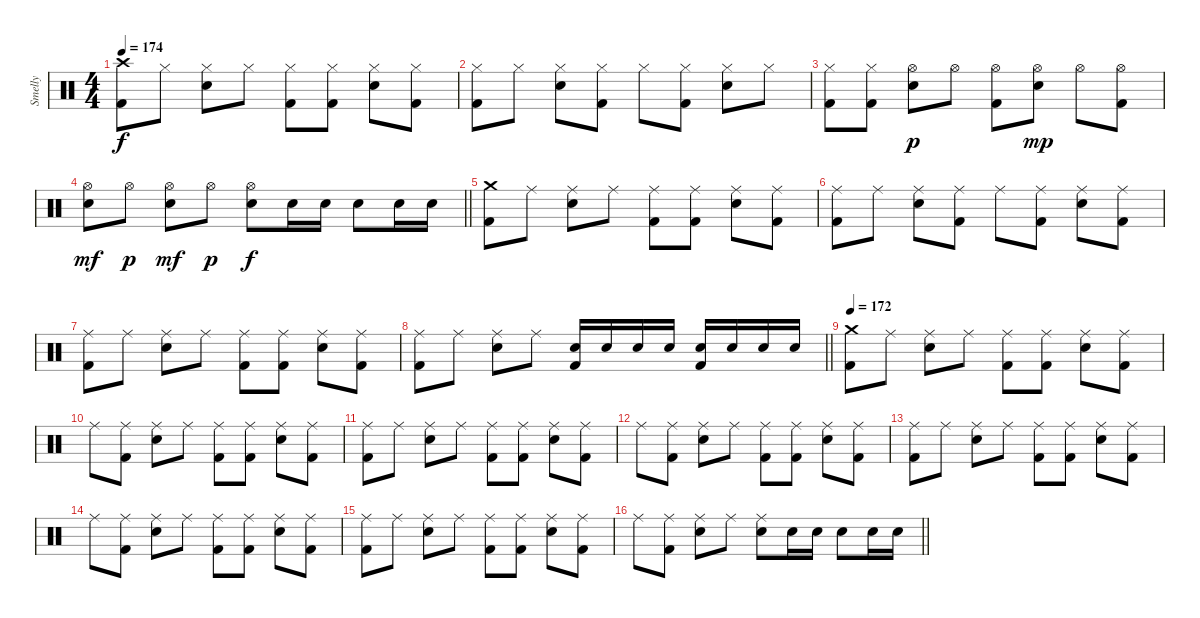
\track ("Smelly" "Smelly") {instrument percussion}
\staff {score}
\articulation defaults
\ts (4 4)
\tempo 174
\clef neutral
\ks c
("Crash high (hit)" "Kick (hit) 2").8{dy f} "Hi-Hat (closed)".8 ("Hi-Hat (closed)" "Electric Snare (hit)").8 "Hi-Hat (closed)".8 ("Hi-Hat (closed)" "Kick (hit) 2").8 ("Hi-Hat (closed)" "Kick (hit) 2").8 ("Hi-Hat (closed)" "Electric Snare (hit)").8 ("Hi-Hat (closed)" "Kick (hit) 2").8 |
("Hi-Hat (closed)" "Kick (hit) 2").8 "Hi-Hat (closed)".8 ("Hi-Hat (closed)" "Electric Snare (hit)").8 ("Hi-Hat (closed)" "Kick (hit) 2").8 "Hi-Hat (closed)".8 ("Hi-Hat (closed)" "Kick (hit) 2").8 ("Hi-Hat (closed)" "Electric Snare (hit)").8 "Hi-Hat (closed)".8 |
("Hi-Hat (closed)" "Kick (hit) 2").8 ("Hi-Hat (closed)" "Kick (hit) 2").8 ("Hi-Hat (open)" "Electric Snare (hit)").8{dy p} "Hi-Hat (open)".8 ("Hi-Hat (open)" "Kick (hit) 2").8 ("Hi-Hat (open)" "Electric Snare (hit)").8{dy mp} "Hi-Hat (open)".8 ("Hi-Hat (open)" "Kick (hit) 2").8 |
\barLineRight lightlight
("Hi-Hat (open)" "Electric Snare (hit)").8{dy mf} "Hi-Hat (open)".8{dy p} ("Hi-Hat (open)" "Electric Snare (hit)").8{dy mf} "Hi-Hat (open)".8{dy p} ("Hi-Hat (open)" "Electric Snare (hit)").8{dy f} "Electric Snare (hit)".16 "Electric Snare (hit)".16 "Electric Snare (hit)".8 "Electric Snare (hit)".16 "Electric Snare (hit)".16 |
\section ("" "")
("Crash medium (hit)" "Kick (hit) 2").8 "Ride (middle)".8 ("Ride (middle)" "Electric Snare (hit)").8 "Ride (middle)".8 ("Ride (middle)" "Kick (hit) 2").8 ("Ride (middle)" "Kick (hit) 2").8 ("Ride (middle)" "Electric Snare (hit)").8 ("Ride (middle)" "Kick (hit) 2").8 |
("Ride (middle)" "Kick (hit) 2").8 "Ride (middle)".8 ("Ride (middle)" "Electric Snare (hit)").8 ("Ride (middle)" "Kick (hit) 2").8 "Ride (middle)".8 ("Ride (middle)" "Kick (hit) 2").8 ("Ride (middle)" "Electric Snare (hit)").8 ("Ride (middle)" "Kick (hit) 2").8 |
("Ride (middle)" "Kick (hit) 2").8 "Ride (middle)".8 ("Ride (middle)" "Electric Snare (hit)").8 "Ride (middle)".8 ("Ride (middle)" "Kick (hit) 2").8 ("Ride (middle)" "Kick (hit) 2").8 ("Ride (middle)" "Electric Snare (hit)").8 ("Ride (middle)" "Kick (hit) 2").8 |
\barLineRight lightlight
("Ride (middle)" "Kick (hit) 2").8 "Ride (middle)".8 ("Ride (middle)" "Electric Snare (hit)").8 "Ride (middle)".8 ("Electric Snare (hit)" "Kick (hit) 2").16 "Electric Snare (hit)".16 "Electric Snare (hit)".16 "Electric Snare (hit)".16 ("Electric Snare (hit)" "Kick (hit) 2").16 "Electric Snare (hit)".16 "Electric Snare (hit)".16 "Electric Snare (hit)".16 |
\section ("" "")
\tempo 172
("Crash medium (hit)" "Kick (hit) 2").8 "Ride (middle)".8 ("Ride (middle)" "Electric Snare (hit)").8 "Ride (middle)".8 ("Ride (middle)" "Kick (hit) 2").8 ("Ride (middle)" "Kick (hit) 2").8 ("Ride (middle)" "Electric Snare (hit)").8 ("Ride (middle)" "Kick (hit) 2").8 |
"Ride (middle)".8 ("Ride (middle)" "Kick (hit) 2").8 ("Ride (middle)" "Electric Snare (hit)").8 "Ride (middle)".8 ("Ride (middle)" "Kick (hit) 2").8 ("Ride (middle)" "Kick (hit) 2").8 ("Ride (middle)" "Electric Snare (hit)").8 ("Ride (middle)" "Kick (hit) 2").8 |
("Ride (middle)" "Kick (hit) 2").8 "Ride (middle)".8 ("Ride (middle)" "Electric Snare (hit)").8 "Ride (middle)".8 ("Ride (middle)" "Kick (hit) 2").8 ("Ride (middle)" "Kick (hit) 2").8 ("Ride (middle)" "Electric Snare (hit)").8 ("Ride (middle)" "Kick (hit) 2").8 |
"Ride (middle)".8 ("Ride (middle)" "Kick (hit) 2").8 ("Ride (middle)" "Electric Snare (hit)").8 "Ride (middle)".8 ("Ride (middle)" "Kick (hit) 2").8 ("Ride (middle)" "Kick (hit) 2").8 ("Ride (middle)" "Electric Snare (hit)").8 ("Ride (middle)" "Kick (hit) 2").8 |
("Ride (middle)" "Kick (hit) 2").8 "Ride (middle)".8 ("Ride (middle)" "Electric Snare (hit)").8 "Ride (middle)".8 ("Ride (middle)" "Kick (hit) 2").8 ("Ride (middle)" "Kick (hit) 2").8 ("Ride (middle)" "Electric Snare (hit)").8 ("Ride (middle)" "Kick (hit) 2").8 |
"Ride (middle)".8 ("Ride (middle)" "Kick (hit) 2").8 ("Ride (middle)" "Electric Snare (hit)").8 "Ride (middle)".8 ("Ride (middle)" "Kick (hit) 2").8 ("Ride (middle)" "Kick (hit) 2").8 ("Ride (middle)" "Electric Snare (hit)").8 ("Ride (middle)" "Kick (hit) 2").8 |
("Ride (middle)" "Kick (hit) 2").8 "Ride (middle)".8 ("Ride (middle)" "Electric Snare (hit)").8 "Ride (middle)".8 ("Ride (middle)" "Kick (hit) 2").8 ("Ride (middle)" "Kick (hit) 2").8 ("Ride (middle)" "Electric Snare (hit)").8 ("Ride (middle)" "Kick (hit) 2").8 |
\barLineRight lightlight "Ride (middle)".8
("Ride (middle)" "Kick (hit) 2").8 ("Ride (middle)" "Electric Snare (hit)").8 "Ride (middle)".8 ("Ride (middle)" "Electric Snare (hit)").8 "Electric Snare (hit)".16 "Electric Snare (hit)".16 "Electric Snare (hit)".8 "Electric Snare (hit)".16 "Electric Snare (hit)".16
